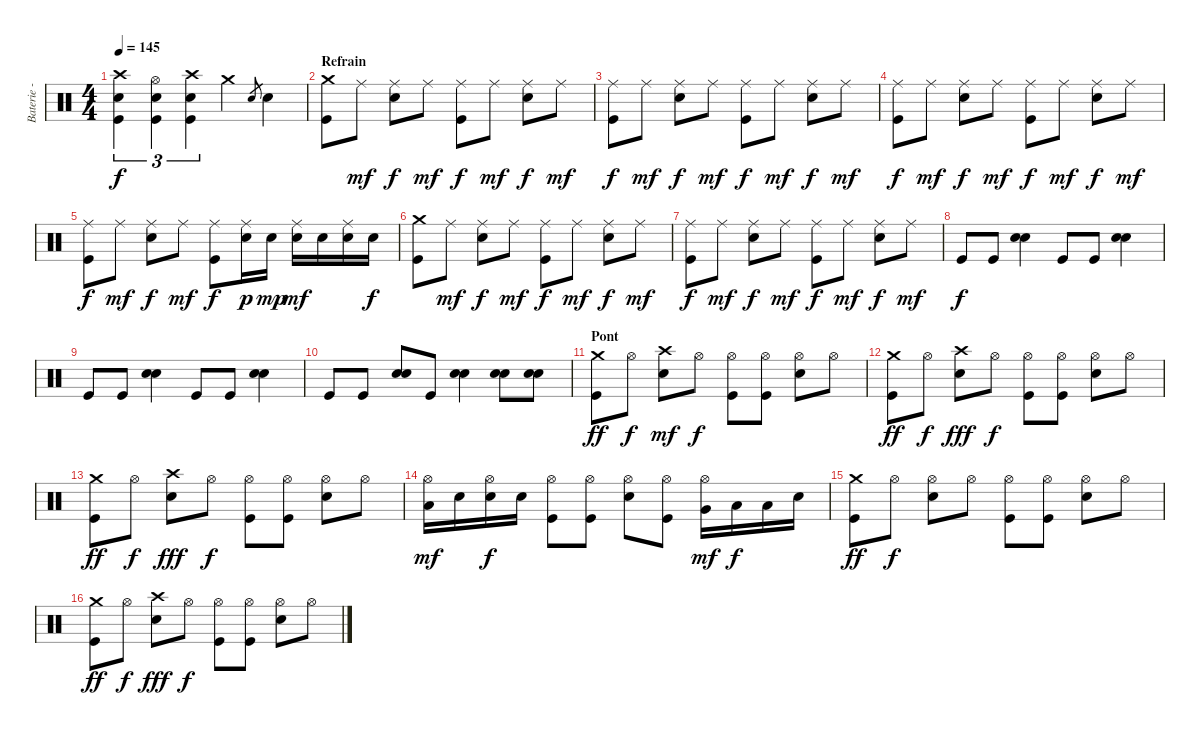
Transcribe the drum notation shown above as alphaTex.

\track ("Baterie - Alex" "Baterie - ") {instrument percussion}
\staff {score}
\articulation defaults
\ts (4 4)
\tempo 145
\clef neutral
\ks c
("Crash high (hit)" "Electric Snare (hit)" "Kick (hit)").4{tu (3 2) dy f} ("Hi-Hat (open)" "Electric Snare (hit)" "Kick (hit)").4{tu (3 2)} ("Crash high (hit)" "Electric Snare (hit)" "Kick (hit)").4{tu (3 2)} "Crash medium (hit)".4 "Electric Snare (hit)".8{gr} "Electric Snare (hit)".4 |
\section ("" "Refrain")
("Crash medium (hit)" "Kick (hit)").8 "Ride (middle)".8{dy mf} ("Ride (middle)" "Electric Snare (hit)").8{dy f} "Ride (middle)".8{dy mf} ("Ride (middle)" "Kick (hit)").8{dy f} "Ride (middle)".8{dy mf} ("Ride (middle)" "Electric Snare (hit)").8{dy f} "Ride (middle)".8{dy mf} |
("Ride (middle)" "Kick (hit)").8{dy f} "Ride (middle)".8{dy mf} ("Ride (middle)" "Electric Snare (hit)").8{dy f} "Ride (middle)".8{dy mf} ("Ride (middle)" "Kick (hit)").8{dy f} "Ride (middle)".8{dy mf} ("Ride (middle)" "Electric Snare (hit)").8{dy f} "Ride (middle)".8{dy mf} |
("Ride (middle)" "Kick (hit)").8{dy f} "Ride (middle)".8{dy mf} ("Ride (middle)" "Electric Snare (hit)").8{dy f} "Ride (middle)".8{dy mf} ("Ride (middle)" "Kick (hit)").8{dy f} "Ride (middle)".8{dy mf} ("Ride (middle)" "Electric Snare (hit)").8{dy f} "Ride (middle)".8{dy mf} |
("Ride (middle)" "Kick (hit)").8{dy f} "Ride (middle)".8{dy mf} ("Ride (middle)" "Electric Snare (hit)").8{dy f} "Ride (middle)".8{dy mf} ("Ride (middle)" "Kick (hit)").8{dy f} ("Ride (middle)" "Electric Snare (hit)").16{dy p} "Electric Snare (hit)".16{dy mp} ("Ride (middle)" "Electric Snare (hit)").16{dy mf} "Electric Snare (hit)".16 ("Ride (middle)" "Electric Snare (hit)").16 "Electric Snare (hit)".16{dy f} |
("Crash medium (hit)" "Kick (hit)").8 "Ride (middle)".8{dy mf} ("Ride (middle)" "Electric Snare (hit)").8{dy f} "Ride (middle)".8{dy mf} ("Ride (middle)" "Kick (hit)").8{dy f} "Ride (middle)".8{dy mf} ("Ride (middle)" "Electric Snare (hit)").8{dy f} "Ride (middle)".8{dy mf} |
("Ride (middle)" "Kick (hit)").8{dy f} "Ride (middle)".8{dy mf} ("Ride (middle)" "Electric Snare (hit)").8{dy f} "Ride (middle)".8{dy mf} ("Ride (middle)" "Kick (hit)").8{dy f} "Ride (middle)".8{dy mf} ("Ride (middle)" "Electric Snare (hit)").8{dy f} "Ride (middle)".8{dy mf} |
"Kick (hit)".8{dy f} "Kick (hit)".8 ("Snare (hit) 2" "Electric Snare (hit)").4 "Kick (hit)".8 "Kick (hit)".8 ("Snare (hit) 2" "Electric Snare (hit)").4 |
"Kick (hit)".8 "Kick (hit)".8 ("Snare (hit) 2" "Electric Snare (hit)").4 "Kick (hit)".8 "Kick (hit)".8 ("Snare (hit) 2" "Electric Snare (hit)").4 |
"Kick (hit)".8 "Kick (hit)".8 ("Snare (hit) 2" "Electric Snare (hit)").8 "Kick (hit)".8 ("Snare (hit) 2" "Electric Snare (hit)").4 ("Snare (hit) 2" "Electric Snare (hit)").8 ("Snare (hit) 2" "Electric Snare (hit)").8 |
\section ("" "Pont")
("Crash medium (hit)" "Kick (hit)").8{dy ff} "Hi-Hat (open)".8{dy f} ("Crash high (hit)" "Electric Snare (hit)").8{dy mf} "Hi-Hat (open)".8{dy f} ("Hi-Hat (open)" "Kick (hit)").8 ("Hi-Hat (open)" "Kick (hit)").8 ("Hi-Hat (open)" "Electric Snare (hit)").8 "Hi-Hat (open)".8 |
("Crash medium (hit)" "Kick (hit)").8{dy ff} "Hi-Hat (open)".8{dy f} ("Crash high (hit)" "Electric Snare (hit)").8{dy fff} "Hi-Hat (open)".8{dy f} ("Hi-Hat (open)" "Kick (hit)").8 ("Hi-Hat (open)" "Kick (hit)").8 ("Hi-Hat (open)" "Electric Snare (hit)").8 "Hi-Hat (open)".8 |
("Crash medium (hit)" "Kick (hit)").8{dy ff} "Hi-Hat (open)".8{dy f} ("Crash high (hit)" "Electric Snare (hit)").8{dy fff} "Hi-Hat (open)".8{dy f} ("Hi-Hat (open)" "Kick (hit)").8 ("Hi-Hat (open)" "Kick (hit)").8 ("Hi-Hat (open)" "Electric Snare (hit)").8 "Hi-Hat (open)".8 |
("Hi-Hat (open)" "Low Floor Tom (hit)").16{dy mf} "Electric Snare (hit)".16 ("Hi-Hat (open)" "Electric Snare (hit)").16{dy f} "Electric Snare (hit)".16 ("Hi-Hat (open)" "Kick (hit)").8 ("Hi-Hat (open)" "Kick (hit)").8 ("Hi-Hat (open)" "Electric Snare (hit)").8 ("Hi-Hat (open)" "Kick (hit)").8 ("Hi-Hat (open)" "Very Low Tom (hit)").16{dy mf} "Low Floor Tom (hit)".16{dy f} "Low Tom (hit)".16 "Electric Snare (hit)".16 |
("Crash medium (hit)" "Kick (hit)").8{dy ff} "Hi-Hat (open)".8{dy f} ("Hi-Hat (open)" "Electric Snare (hit)").8 "Hi-Hat (open)".8 ("Hi-Hat (open)" "Kick (hit)").8 ("Hi-Hat (open)" "Kick (hit)").8 ("Hi-Hat (open)" "Electric Snare (hit)").8 "Hi-Hat (open)".8 |
("Crash medium (hit)" "Kick (hit)").8{dy ff} "Hi-Hat (open)".8{dy f} ("Crash high (hit)" "Electric Snare (hit)").8{dy fff} "Hi-Hat (open)".8{dy f} ("Hi-Hat (open)" "Kick (hit)").8 ("Hi-Hat (open)" "Kick (hit)").8 ("Hi-Hat (open)" "Electric Snare (hit)").8 "Hi-Hat (open)".8
